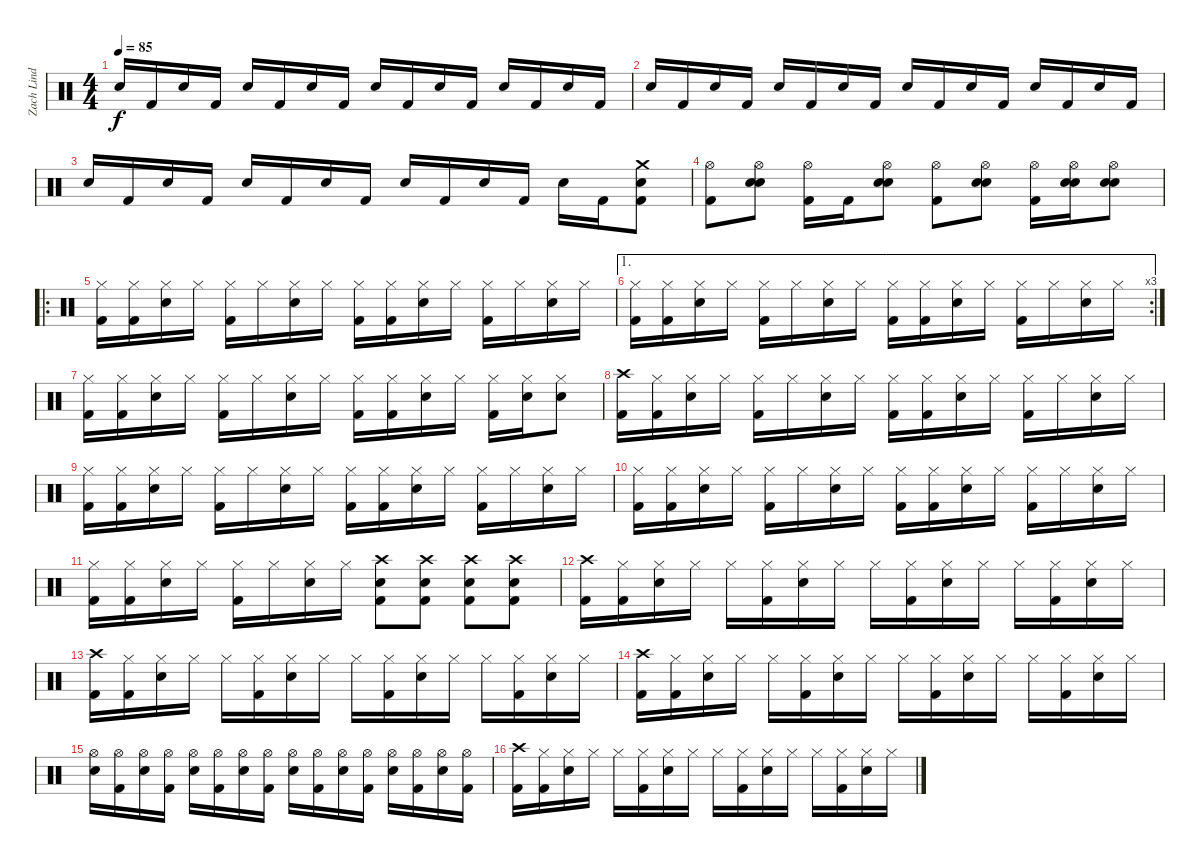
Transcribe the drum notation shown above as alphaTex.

\track ("Zach Lind" "Zach Lind") {instrument percussion}
\staff {score}
\articulation defaults
\ts (4 4)
\tempo 85
\clef neutral
\ks c "Snare (hit) 2".16{dy f} "Kick (hit) 2".16 "Snare (hit) 2".16 "Kick (hit) 2".16 "Snare (hit) 2".16 "Kick (hit) 2".16 "Snare (hit) 2".16 "Kick (hit) 2".16 "Snare (hit) 2".16 "Kick (hit) 2".16 "Snare (hit) 2".16 "Kick (hit) 2".16 "Snare (hit) 2".16 "Kick (hit) 2".16 "Snare (hit) 2".16 "Kick (hit) 2".16
|
"Snare (hit) 2".16 "Kick (hit) 2".16 "Snare (hit) 2".16 "Kick (hit) 2".16 "Snare (hit) 2".16 "Kick (hit) 2".16 "Snare (hit) 2".16 "Kick (hit) 2".16 "Snare (hit) 2".16 "Kick (hit) 2".16 "Snare (hit) 2".16 "Kick (hit) 2".16 "Snare (hit) 2".16 "Kick (hit) 2".16 "Snare (hit) 2".16 "Kick (hit) 2".16 |
"Snare (hit) 2".16 "Kick (hit) 2".16 "Snare (hit) 2".16 "Kick (hit) 2".16 "Snare (hit) 2".16 "Kick (hit) 2".16 "Snare (hit) 2".16 "Kick (hit) 2".16 "Snare (hit) 2".16 "Kick (hit) 2".16 "Snare (hit) 2".16 "Kick (hit) 2".16 "Snare (hit) 2".16 "Kick (hit) 2".16 ("Crash medium (hit)" "Snare (hit) 2" "Kick (hit) 2").8 |
("Hi-Hat (open)" "Kick (hit) 2").8 ("Hi-Hat (open)" "Snare (hit) 2" "Snare (hit) 2").8 ("Hi-Hat (open)" "Kick (hit) 2").16 "Kick (hit) 2".16 ("Hi-Hat (open)" "Snare (hit) 2" "Snare (hit) 2").8 ("Hi-Hat (open)" "Kick (hit) 2").8 ("Hi-Hat (open)" "Snare (hit) 2" "Snare (hit) 2").8 ("Hi-Hat (open)" "Kick (hit) 2").16 ("Hi-Hat (open)" "Snare (hit) 2" "Snare (hit) 2").16 ("Hi-Hat (open)" "Snare (hit) 2" "Snare (hit) 2").8 |
\ro
("Hi-Hat (closed)" "Kick (hit) 2").16 ("Hi-Hat (closed)" "Kick (hit) 2").16 ("Hi-Hat (closed)" "Snare (hit) 2").16 "Hi-Hat (closed)".16 ("Hi-Hat (closed)" "Kick (hit) 2").16 "Hi-Hat (closed)".16 ("Hi-Hat (closed)" "Snare (hit) 2").16 "Hi-Hat (closed)".16 ("Hi-Hat (closed)" "Kick (hit) 2").16 ("Hi-Hat (closed)" "Kick (hit) 2").16 ("Hi-Hat (closed)" "Snare (hit) 2").16 "Hi-Hat (closed)".16 ("Hi-Hat (closed)" "Kick (hit) 2").16 "Hi-Hat (closed)".16 ("Hi-Hat (closed)" "Snare (hit) 2").16 "Hi-Hat (closed)".16 |
\ae 1
\rc 3
("Hi-Hat (closed)" "Kick (hit) 2").16 ("Hi-Hat (closed)" "Kick (hit) 2").16 ("Hi-Hat (closed)" "Snare (hit) 2").16 "Hi-Hat (closed)".16 ("Hi-Hat (closed)" "Kick (hit) 2").16 "Hi-Hat (closed)".16 ("Hi-Hat (closed)" "Snare (hit) 2").16 "Hi-Hat (closed)".16 ("Hi-Hat (closed)" "Kick (hit) 2").16 ("Hi-Hat (closed)" "Kick (hit) 2").16 ("Hi-Hat (closed)" "Snare (hit) 2").16 "Hi-Hat (closed)".16 ("Hi-Hat (closed)" "Kick (hit) 2").16 "Hi-Hat (closed)".16 ("Hi-Hat (closed)" "Snare (hit) 2").16 "Hi-Hat (closed)".16 |
("Hi-Hat (closed)" "Kick (hit) 2").16 ("Hi-Hat (closed)" "Kick (hit) 2").16 ("Hi-Hat (closed)" "Snare (hit) 2").16 "Hi-Hat (closed)".16 ("Hi-Hat (closed)" "Kick (hit) 2").16 "Hi-Hat (closed)".16 ("Hi-Hat (closed)" "Snare (hit) 2").16 "Hi-Hat (closed)".16 ("Hi-Hat (closed)" "Kick (hit) 2").16 ("Hi-Hat (closed)" "Kick (hit) 2").16 ("Hi-Hat (closed)" "Snare (hit) 2").16 "Hi-Hat (closed)".16 ("Hi-Hat (closed)" "Kick (hit) 2").16 ("Hi-Hat (closed)" "Snare (hit) 2").16 ("Hi-Hat (closed)" "Snare (hit) 2").8 |
("Crash high (hit)" "Kick (hit) 2").16 ("Hi-Hat (closed)" "Kick (hit) 2").16 ("Hi-Hat (closed)" "Snare (hit) 2").16 "Hi-Hat (closed)".16 ("Hi-Hat (closed)" "Kick (hit) 2").16 "Hi-Hat (closed)".16 ("Hi-Hat (closed)" "Snare (hit) 2").16 "Hi-Hat (closed)".16 ("Hi-Hat (closed)" "Kick (hit) 2").16 ("Hi-Hat (closed)" "Kick (hit) 2").16 ("Hi-Hat (closed)" "Snare (hit) 2").16 "Hi-Hat (closed)".16 ("Hi-Hat (closed)" "Kick (hit) 2").16 "Hi-Hat (closed)".16 ("Hi-Hat (closed)" "Snare (hit) 2").16 "Hi-Hat (closed)".16 |
("Hi-Hat (closed)" "Kick (hit) 2").16 ("Hi-Hat (closed)" "Kick (hit) 2").16 ("Hi-Hat (closed)" "Snare (hit) 2").16 "Hi-Hat (closed)".16 ("Hi-Hat (closed)" "Kick (hit) 2").16 "Hi-Hat (closed)".16 ("Hi-Hat (closed)" "Snare (hit) 2").16 "Hi-Hat (closed)".16 ("Hi-Hat (closed)" "Kick (hit) 2").16 ("Hi-Hat (closed)" "Kick (hit) 2").16 ("Hi-Hat (closed)" "Snare (hit) 2").16 "Hi-Hat (closed)".16 ("Hi-Hat (closed)" "Kick (hit) 2").16 "Hi-Hat (closed)".16 ("Hi-Hat (closed)" "Snare (hit) 2").16 "Hi-Hat (closed)".16 |
("Hi-Hat (closed)" "Kick (hit) 2").16 ("Hi-Hat (closed)" "Kick (hit) 2").16 ("Hi-Hat (closed)" "Snare (hit) 2").16 "Hi-Hat (closed)".16 ("Hi-Hat (closed)" "Kick (hit) 2").16 "Hi-Hat (closed)".16 ("Hi-Hat (closed)" "Snare (hit) 2").16 "Hi-Hat (closed)".16 ("Hi-Hat (closed)" "Kick (hit) 2").16 ("Hi-Hat (closed)" "Kick (hit) 2").16 ("Hi-Hat (closed)" "Snare (hit) 2").16 "Hi-Hat (closed)".16 ("Hi-Hat (closed)" "Kick (hit) 2").16 "Hi-Hat (closed)".16 ("Hi-Hat (closed)" "Snare (hit) 2").16 "Hi-Hat (closed)".16 |
("Hi-Hat (closed)" "Kick (hit) 2").16 ("Hi-Hat (closed)" "Kick (hit) 2").16 ("Hi-Hat (closed)" "Snare (hit) 2").16 "Hi-Hat (closed)".16 ("Hi-Hat (closed)" "Kick (hit) 2").16 "Hi-Hat (closed)".16 ("Hi-Hat (closed)" "Snare (hit) 2").16 "Hi-Hat (closed)".16 ("Crash high (hit)" "Snare (hit) 2" "Kick (hit) 2").8 ("Crash high (hit)" "Snare (hit) 2" "Kick (hit) 2").8 ("Crash high (hit)" "Snare (hit) 2" "Kick (hit) 2").8 ("Crash high (hit)" "Snare (hit) 2" "Kick (hit) 2").8 |
("Crash high (hit)" "Kick (hit) 2").16 ("Hi-Hat (closed)" "Kick (hit) 2").16 ("Hi-Hat (closed)" "Snare (hit) 2").16 "Hi-Hat (closed)".16 "Hi-Hat (closed)".16 ("Hi-Hat (closed)" "Kick (hit) 2").16 ("Hi-Hat (closed)" "Snare (hit) 2").16 "Hi-Hat (closed)".16 "Hi-Hat (closed)".16 ("Hi-Hat (closed)" "Kick (hit) 2").16 ("Hi-Hat (closed)" "Snare (hit) 2").16 "Hi-Hat (closed)".16 "Hi-Hat (closed)".16 ("Hi-Hat (closed)" "Kick (hit) 2").16 ("Hi-Hat (closed)" "Snare (hit) 2").16 "Hi-Hat (closed)".16 |
("Crash high (hit)" "Kick (hit) 2").16 ("Hi-Hat (closed)" "Kick (hit) 2").16 ("Hi-Hat (closed)" "Snare (hit) 2").16 "Hi-Hat (closed)".16 "Hi-Hat (closed)".16 ("Hi-Hat (closed)" "Kick (hit) 2").16 ("Hi-Hat (closed)" "Snare (hit) 2").16 "Hi-Hat (closed)".16 "Hi-Hat (closed)".16 ("Hi-Hat (closed)" "Kick (hit) 2").16 ("Hi-Hat (closed)" "Snare (hit) 2").16 "Hi-Hat (closed)".16 "Hi-Hat (closed)".16 ("Hi-Hat (closed)" "Kick (hit) 2").16 ("Hi-Hat (closed)" "Snare (hit) 2").16 "Hi-Hat (closed)".16 |
("Crash high (hit)" "Kick (hit) 2").16 ("Hi-Hat (closed)" "Kick (hit) 2").16 ("Hi-Hat (closed)" "Snare (hit) 2").16 "Hi-Hat (closed)".16 "Hi-Hat (closed)".16 ("Hi-Hat (closed)" "Kick (hit) 2").16 ("Hi-Hat (closed)" "Snare (hit) 2").16 "Hi-Hat (closed)".16 "Hi-Hat (closed)".16 ("Hi-Hat (closed)" "Kick (hit) 2").16 ("Hi-Hat (closed)" "Snare (hit) 2").16 "Hi-Hat (closed)".16 "Hi-Hat (closed)".16 ("Hi-Hat (closed)" "Kick (hit) 2").16 ("Hi-Hat (closed)" "Snare (hit) 2").16 "Hi-Hat (closed)".16 |
("Hi-Hat (open)" "Snare (hit) 2").16 ("Hi-Hat (open)" "Kick (hit) 2").16 ("Hi-Hat (open)" "Snare (hit) 2").16 ("Hi-Hat (open)" "Kick (hit) 2").16 ("Hi-Hat (open)" "Snare (hit) 2").16 ("Hi-Hat (open)" "Kick (hit) 2").16 ("Hi-Hat (open)" "Snare (hit) 2").16 ("Hi-Hat (open)" "Kick (hit) 2").16 ("Hi-Hat (open)" "Snare (hit) 2").16 ("Hi-Hat (open)" "Kick (hit) 2").16 ("Hi-Hat (open)" "Snare (hit) 2").16 ("Hi-Hat (open)" "Kick (hit) 2").16 ("Hi-Hat (open)" "Snare (hit) 2").16 ("Hi-Hat (open)" "Kick (hit) 2").16 ("Hi-Hat (open)" "Snare (hit) 2").16 ("Hi-Hat (open)" "Kick (hit) 2").16 |
("Crash high (hit)" "Kick (hit) 2").16 ("Hi-Hat (closed)" "Kick (hit) 2").16 ("Hi-Hat (closed)" "Snare (hit) 2").16 "Hi-Hat (closed)".16 "Hi-Hat (closed)".16 ("Hi-Hat (closed)" "Kick (hit) 2").16 ("Hi-Hat (closed)" "Snare (hit) 2").16 "Hi-Hat (closed)".16 "Hi-Hat (closed)".16 ("Hi-Hat (closed)" "Kick (hit) 2").16 ("Hi-Hat (closed)" "Snare (hit) 2").16 "Hi-Hat (closed)".16 "Hi-Hat (closed)".16 ("Hi-Hat (closed)" "Kick (hit) 2").16 ("Hi-Hat (closed)" "Snare (hit) 2").16 "Hi-Hat (closed)".16
